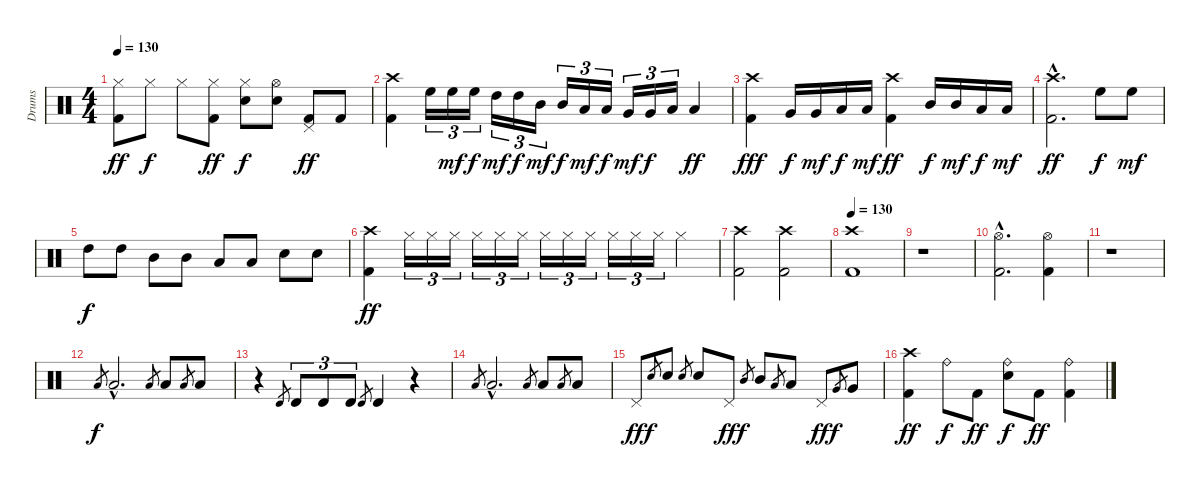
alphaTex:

\track ("Drums" "Drums") {instrument percussion}
\staff {score}
\articulation defaults
\ts (4 4)
\tempo 130
\clef neutral
\ks c
("Hi-Hat (closed)" "Kick (hit) 2").8{dy ff} "Hi-Hat (closed)".8{dy f} "Hi-Hat (closed)".8 ("Hi-Hat (closed)" "Kick (hit) 2").8{dy ff} ("Hi-Hat (closed)" "Snare (hit) 2").8{dy f} ("Hi-Hat (open)" "Snare (hit) 2").8 ("Pedal Hi-Hat (hit)" "Kick (hit) 2").8{dy ff} "Kick (hit) 2".8 |
("Crash high (hit)" "Kick (hit) 2").4 "High Floor Tom (hit)".16{tu (3 2)} "High Floor Tom (hit)".16{tu (3 2) dy mf} "High Floor Tom (hit)".16{tu (3 2) dy f} "High Tom (hit)".16{tu (3 2) dy mf} "High Tom (hit)".16{tu (3 2) dy f} "Mid Tom (hit)".16{tu (3 2) dy mf} "Mid Tom (hit)".16{tu (3 2) dy f} "Low Tom (hit)".16{tu (3 2) dy mf} "Low Tom (hit)".16{tu (3 2) dy f} "Very Low Tom (hit)".16{tu (3 2) dy mf} "Very Low Tom (hit)".16{tu (3 2) dy f} "Low Floor Tom (hit)".16{tu (3 2)} "Low Floor Tom (hit)".4{dy ff} |
("Crash high (hit)" "Kick (hit) 2").4{dy fff} "Very Low Tom (hit)".16{dy f} "Very Low Tom (hit)".16{dy mf} "Low Tom (hit)".16{dy f} "Low Tom (hit)".16{dy mf} ("Crash high (hit)" "Kick (hit) 2").4{dy ff} "Mid Tom (hit)".16{dy f} "Mid Tom (hit)".16{dy mf} "Low Tom (hit)".16{dy f} "Low Tom (hit)".16{dy mf} |
("Crash high (hit)"{hac} "Kick (hit) 2"{hac}).2{d dy ff} "High Floor Tom (hit)".8{dy f} "High Floor Tom (hit)".8{dy mf} |
"High Tom (hit)".8{dy f} "High Tom (hit)".8 "Mid Tom (hit)".8 "Mid Tom (hit)".8 "Low Tom (hit)".8 "Low Tom (hit)".8 "Snare (hit) 2".8 "Snare (hit) 2".8 |
("Crash high (hit)" "Kick (hit) 2").4{dy ff} "Hi-Hat (closed)".16{tu (3 2)} "Hi-Hat (closed)".16{tu (3 2)} "Hi-Hat (closed)".16{tu (3 2)} "Hi-Hat (closed)".16{tu (3 2)} "Hi-Hat (closed)".16{tu (3 2)} "Hi-Hat (closed)".16{tu (3 2)} "Hi-Hat (closed)".16{tu (3 2)} "Hi-Hat (closed)".16{tu (3 2)} "Hi-Hat (closed)".16{tu (3 2)} "Hi-Hat (closed)".16{tu (3 2)} "Hi-Hat (closed)".16{tu (3 2)} "Hi-Hat (closed)".16{tu (3 2)} "Hi-Hat (closed)".4 |
("Crash high (hit)" "Kick (hit) 2").2 ("Crash high (hit)" "Kick (hit) 2").2 |
\tempo 130
("Crash high (hit)" "Kick (hit) 2").1 |
r.1 |
("Hi-Hat (open)"{hac} "Kick (hit) 2"{hac}).2{d} ("Hi-Hat (open)" "Kick (hit) 2").4 |
r.1 |
"Low Floor Tom (hit)".8{gr dy f} "Low Floor Tom (hit)"{hac}.2{d} "Low Floor Tom (hit)".8{gr} "Low Floor Tom (hit)".8 "Low Floor Tom (hit)".8{gr} "Low Floor Tom (hit)".8 |
r.4 "Timbale high (hit)".8{gr} "Timbale high (hit)".8{tu (3 2)} "Timbale high (hit)".8{tu (3 2)} "Timbale high (hit)".8{tu (3 2)} "Timbale high (hit)".8{gr} "Timbale high (hit)".4 r.4 |
"Low Floor Tom (hit)".8{gr} "Low Floor Tom (hit)"{hac}.2{d} "Low Floor Tom (hit)".8{gr} "Low Floor Tom (hit)".8 "Low Floor Tom (hit)".8{gr} "Low Floor Tom (hit)".8 |
"Pedal Hi-Hat (hit)".8{dy ff} "Snare (hit) 2".8{gr dy f} "Snare (hit) 2".8 "Snare (hit) 2".8{gr} "Snare (hit) 2".8 "Pedal Hi-Hat (hit)".8{dy ff} "Mid Tom (hit)".8{gr dy f} "Mid Tom (hit)".8 "Low Tom (hit)".8{gr} "Low Tom (hit)".8 "Pedal Hi-Hat (hit)".8{dy ff} "Very Low Tom (hit)".8{gr dy f} "Very Low Tom (hit)".8 |
("Crash high (hit)" "Kick (hit) 2").4{dy ff} "Ride (bell)".8{dy f} "Kick (hit) 2".8{dy ff} ("Ride (bell)" "Snare (hit) 2").8{dy f} "Kick (hit) 2".8{dy ff} ("Ride (bell)" "Kick (hit) 2").4
